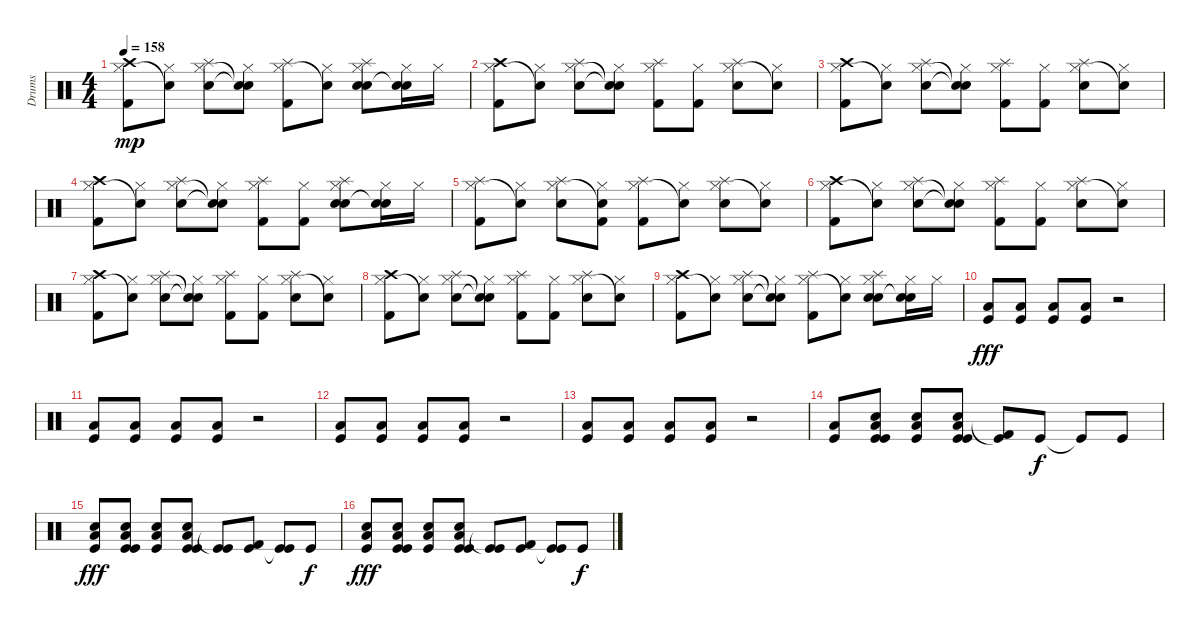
\track ("Drums" "Drums") {instrument percussion}
\staff {score}
\articulation defaults
\ts (4 4)
\tempo 158
\clef neutral
\ks c
("Crash high (hit)" "Hi-Hat (closed)" "Kick (hit) 2").8{dy mp} ("Hi-Hat (closed)" "Snare (hit)"{t}).8 ("Splash (hit)" "Hi-Hat (closed)" "Electric Snare (hit)").8 ("Hi-Hat (closed)" "Electric Snare (hit)"{t} "Snare (hit)"{t}).8 ("Splash (hit)" "Hi-Hat (closed)" "Kick (hit) 2").8 ("Hi-Hat (closed)" "Snare (hit)"{t}).8 ("Splash (hit)" "Hi-Hat (closed)" "Electric Snare (hit)" "Electric Snare (hit)").8 ("Hi-Hat (closed)" "Electric Snare (hit)" "Snare (hit)"{t}).16 "Hi-Hat (closed)".16 |
("Crash high (hit)" "Hi-Hat (closed)" "Kick (hit) 2").8 ("Hi-Hat (closed)" "Snare (hit)"{t}).8 ("Splash (hit)" "Hi-Hat (closed)" "Electric Snare (hit)").8 ("Hi-Hat (closed)" "Electric Snare (hit)"{t} "Snare (hit)"{t}).8 ("Splash (hit)" "Hi-Hat (closed)" "Kick (hit) 2").8 ("Hi-Hat (closed)" "Kick (hit) 2").8 ("Splash (hit)" "Hi-Hat (closed)" "Electric Snare (hit)").8 ("Hi-Hat (closed)" "Snare (hit)"{t}).8 |
("Crash high (hit)" "Hi-Hat (closed)" "Kick (hit) 2").8 ("Hi-Hat (closed)" "Snare (hit)"{t}).8 ("Splash (hit)" "Hi-Hat (closed)" "Electric Snare (hit)").8 ("Hi-Hat (closed)" "Electric Snare (hit)"{t} "Snare (hit)"{t}).8 ("Splash (hit)" "Hi-Hat (closed)" "Kick (hit) 2").8 ("Hi-Hat (closed)" "Kick (hit) 2").8 ("Splash (hit)" "Hi-Hat (closed)" "Electric Snare (hit)").8 ("Hi-Hat (closed)" "Snare (hit)"{t}).8 |
("Crash high (hit)" "Hi-Hat (closed)" "Kick (hit) 2").8 ("Hi-Hat (closed)" "Snare (hit)"{t}).8 ("Splash (hit)" "Hi-Hat (closed)" "Electric Snare (hit)").8 ("Hi-Hat (closed)" "Electric Snare (hit)"{t} "Snare (hit)"{t}).8 ("Splash (hit)" "Hi-Hat (closed)" "Kick (hit) 2").8 ("Hi-Hat (closed)" "Kick (hit) 2").8 ("Splash (hit)" "Hi-Hat (closed)" "Electric Snare (hit)" "Electric Snare (hit)").8 ("Hi-Hat (closed)" "Electric Snare (hit)" "Snare (hit)"{t}).16 "Hi-Hat (closed)".16 |
("Splash (hit)" "Hi-Hat (closed)" "Kick (hit) 2").8 ("Hi-Hat (closed)" "Snare (hit)"{t}).8 ("Splash (hit)" "Hi-Hat (closed)" "Electric Snare (hit)").8 ("Hi-Hat (closed)" "Electric Snare (hit)"{t} "Kick (hit) 2").8 ("Splash (hit)" "Hi-Hat (closed)" "Kick (hit) 2").8 ("Hi-Hat (closed)" "Snare (hit)"{t}).8 ("Splash (hit)" "Hi-Hat (closed)" "Electric Snare (hit)").8 ("Hi-Hat (closed)" "Snare (hit)"{t}).8 |
("Crash high (hit)" "Hi-Hat (closed)" "Kick (hit) 2").8 ("Hi-Hat (closed)" "Snare (hit)"{t}).8 ("Splash (hit)" "Hi-Hat (closed)" "Electric Snare (hit)").8 ("Hi-Hat (closed)" "Electric Snare (hit)"{t} "Snare (hit)"{t}).8 ("Splash (hit)" "Hi-Hat (closed)" "Kick (hit) 2").8 ("Hi-Hat (closed)" "Kick (hit) 2").8 ("Splash (hit)" "Hi-Hat (closed)" "Electric Snare (hit)").8 ("Hi-Hat (closed)" "Snare (hit)"{t}).8 |
("Crash high (hit)" "Hi-Hat (closed)" "Kick (hit) 2").8 ("Hi-Hat (closed)" "Snare (hit)"{t}).8 ("Splash (hit)" "Hi-Hat (closed)" "Electric Snare (hit)").8 ("Hi-Hat (closed)" "Electric Snare (hit)"{t} "Snare (hit)"{t}).8 ("Splash (hit)" "Hi-Hat (closed)" "Kick (hit) 2").8 ("Hi-Hat (closed)" "Kick (hit) 2").8 ("Splash (hit)" "Hi-Hat (closed)" "Electric Snare (hit)").8 ("Hi-Hat (closed)" "Snare (hit)"{t}).8 |
("Crash high (hit)" "Hi-Hat (closed)" "Kick (hit) 2").8 ("Hi-Hat (closed)" "Snare (hit)"{t}).8 ("Splash (hit)" "Hi-Hat (closed)" "Electric Snare (hit)").8 ("Hi-Hat (closed)" "Electric Snare (hit)"{t} "Snare (hit)"{t}).8 ("Splash (hit)" "Hi-Hat (closed)" "Kick (hit) 2").8 ("Hi-Hat (closed)" "Kick (hit) 2").8 ("Splash (hit)" "Hi-Hat (closed)" "Electric Snare (hit)").8 ("Hi-Hat (closed)" "Snare (hit)"{t}).8 |
("Crash high (hit)" "Hi-Hat (closed)" "Kick (hit) 2").8 ("Hi-Hat (closed)" "Snare (hit)"{t}).8 ("Splash (hit)" "Hi-Hat (closed)" "Electric Snare (hit)").8 ("Hi-Hat (closed)" "Electric Snare (hit)"{t} "Snare (hit)"{t}).8 ("Splash (hit)" "Hi-Hat (closed)" "Kick (hit) 2").8 ("Hi-Hat (closed)" "Snare (hit)"{t}).8 ("Splash (hit)" "Hi-Hat (closed)" "Electric Snare (hit)" "Electric Snare (hit)").8 ("Hi-Hat (closed)" "Electric Snare (hit)" "Snare (hit)"{t}).16 "Hi-Hat (closed)".16 |
("Low Floor Tom (hit)" "Kick (hit)").8{dy fff} ("Low Floor Tom (hit)" "Kick (hit)").8 ("Low Floor Tom (hit)" "Kick (hit)").8 ("Low Floor Tom (hit)" "Kick (hit)").8 r.2 |
("Low Floor Tom (hit)" "Kick (hit)").8 ("Low Floor Tom (hit)" "Kick (hit)").8 ("Low Floor Tom (hit)" "Kick (hit)").8 ("Low Floor Tom (hit)" "Kick (hit)").8 r.2 |
("Low Floor Tom (hit)" "Kick (hit)").8 ("Low Floor Tom (hit)" "Kick (hit)").8 ("Low Floor Tom (hit)" "Kick (hit)").8 ("Low Floor Tom (hit)" "Kick (hit)").8 r.2 |
("Low Floor Tom (hit)" "Kick (hit)").8 ("Low Floor Tom (hit)" "Kick (hit)").8 ("Low Floor Tom (hit)" "Kick (hit)").8 ("Low Floor Tom (hit)" "Kick (hit)").8 r.2 |
("Low Floor Tom (hit)" "Kick (hit)").8 ("Low Floor Tom (hit)" "Electric Snare (hit)" "Kick (hit)" "Kick (hit)").8 ("Low Floor Tom (hit)" "Electric Snare (hit)" "Kick (hit)").8 ("Low Floor Tom (hit)" "Electric Snare (hit)" "Kick (hit)" "Kick (hit)").8 ("Kick (hit) 2" "Kick (hit)"{t}).8 "Kick (hit)".8{dy f} "Kick (hit)"{t}.8 "Kick (hit)".8 |
("Low Floor Tom (hit)" "Electric Snare (hit)" "Kick (hit)").8{dy fff} ("Low Floor Tom (hit)" "Electric Snare (hit)" "Kick (hit)" "Kick (hit)").8 ("Low Floor Tom (hit)" "Electric Snare (hit)" "Kick (hit)").8 ("Low Floor Tom (hit)" "Electric Snare (hit)" "Kick (hit)" "Kick (hit)").8 ("Kick (hit)" "Kick (hit)"{t}).8 ("Kick (hit) 2" "Kick (hit)").8 ("Kick (hit)" "Kick (hit)"{t}).8 "Kick (hit)".8{dy f} |
("Low Floor Tom (hit)" "Electric Snare (hit)" "Kick (hit)").8{dy fff} ("Low Floor Tom (hit)" "Electric Snare (hit)" "Kick (hit)" "Kick (hit)").8 ("Low Floor Tom (hit)" "Electric Snare (hit)" "Kick (hit)").8 ("Low Floor Tom (hit)" "Electric Snare (hit)" "Kick (hit)" "Kick (hit)").8 ("Kick (hit)" "Kick (hit)"{t}).8 ("Kick (hit) 2" "Kick (hit)").8 ("Kick (hit)" "Kick (hit)"{t}).8 "Kick (hit)".8{dy f}
